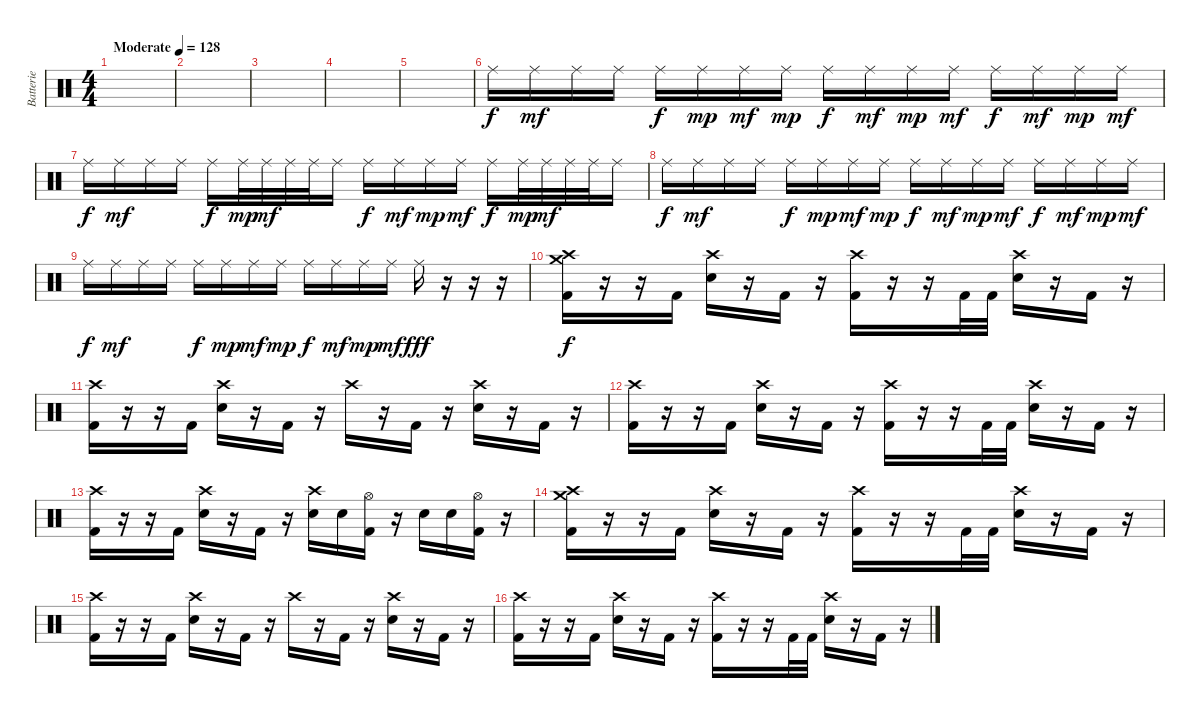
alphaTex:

\track ("Batterie" "Batterie") {instrument percussion}
\staff {score}
\articulation defaults
\ts (4 4)
\tempo (128 "Moderate")
\clef neutral
\ks c
|
|
|
|
|
"Ride (middle)".16 "Ride (middle)".16{dy mf} "Ride (middle)".16 "Ride (middle)".16 "Ride (middle)".16{dy f} "Ride (middle)".16{dy mp} "Ride (middle)".16{dy mf} "Ride (middle)".16{dy mp} "Ride (middle)".16{dy f} "Ride (middle)".16{dy mf} "Ride (middle)".16{dy mp} "Ride (middle)".16{dy mf} "Ride (middle)".16{dy f} "Ride (middle)".16{dy mf} "Ride (middle)".16{dy mp} "Ride (middle)".16{dy mf} |
"Ride (middle)".16{dy f} "Ride (middle)".16{dy mf} "Ride (middle)".16 "Ride (middle)".16 "Ride (middle)".16{dy f} "Ride (middle)".32{dy mp} "Ride (middle)".32{dy mf} "Ride (middle)".32 "Ride (middle)".32 "Ride (middle)".16 "Ride (middle)".16{dy f} "Ride (middle)".16{dy mf} "Ride (middle)".16{dy mp} "Ride (middle)".16{dy mf} "Ride (middle)".16{dy f} "Ride (middle)".32{dy mp} "Ride (middle)".32{dy mf} "Ride (middle)".32 "Ride (middle)".32 "Ride (middle)".16 |
"Ride (middle)".16{dy f} "Ride (middle)".16{dy mf} "Ride (middle)".16 "Ride (middle)".16 "Ride (middle)".16{dy f} "Ride (middle)".16{dy mp} "Ride (middle)".16{dy mf} "Ride (middle)".16{dy mp} "Ride (middle)".16{dy f} "Ride (middle)".16{dy mf} "Ride (middle)".16{dy mp} "Ride (middle)".16{dy mf} "Ride (middle)".16{dy f} "Ride (middle)".16{dy mf} "Ride (middle)".16{dy mp} "Ride (middle)".16{dy mf} |
"Ride (middle)".16{dy f} "Ride (middle)".16{dy mf} "Ride (middle)".16 "Ride (middle)".16 "Ride (middle)".16{dy f} "Ride (middle)".16{dy mp} "Ride (middle)".16{dy mf} "Ride (middle)".16{dy mp} "Ride (middle)".16{dy f} "Ride (middle)".16{dy mf} "Ride (middle)".16{dy mp} "Ride (middle)".16{dy mf} "Ride (middle)".16{dy fff} r.16 r.16 r.16 |
("Kick (hit) 2" "Crash medium (hit)" "Crash high (hit)").16{dy f} r.16 r.16 "Kick (hit) 2".16 ("Electric Snare (hit)" "Crash high (hit)").16 r.16 "Kick (hit) 2".16 r.16 ("Kick (hit) 2" "Crash high (hit)").16 r.16 r.16 "Kick (hit) 2".32 "Kick (hit) 2".32 ("Electric Snare (hit)" "Crash high (hit)").16 r.16 "Kick (hit) 2".16 r.16 |
("Kick (hit) 2" "Crash high (hit)").16 r.16 r.16 "Kick (hit) 2".16 ("Electric Snare (hit)" "Crash high (hit)").16 r.16 "Kick (hit) 2".16 r.16 "Crash high (hit)".16 r.16 "Kick (hit) 2".16 r.16 ("Electric Snare (hit)" "Crash high (hit)").16 r.16 "Kick (hit) 2".16 r.16 |
("Kick (hit) 2" "Crash high (hit)").16 r.16 r.16 "Kick (hit) 2".16 ("Electric Snare (hit)" "Crash high (hit)").16 r.16 "Kick (hit) 2".16 r.16 ("Kick (hit) 2" "Crash high (hit)").16 r.16 r.16 "Kick (hit) 2".32 "Kick (hit) 2".32 ("Electric Snare (hit)" "Crash high (hit)").16 r.16 "Kick (hit) 2".16 r.16 |
("Kick (hit) 2" "Crash high (hit)").16 r.16 r.16 "Kick (hit) 2".16 ("Electric Snare (hit)" "Crash high (hit)").16 r.16 "Kick (hit) 2".16 r.16 ("Electric Snare (hit)" "Crash high (hit)").16 "Electric Snare (hit)".16 ("Kick (hit) 2" "Hi-Hat (open)").16 r.16 "Electric Snare (hit)".16 "Electric Snare (hit)".16 ("Kick (hit) 2" "Hi-Hat (open)").16 r.16 |
("Kick (hit) 2" "Crash medium (hit)" "Crash high (hit)").16 r.16 r.16 "Kick (hit) 2".16 ("Electric Snare (hit)" "Crash high (hit)").16 r.16 "Kick (hit) 2".16 r.16 ("Kick (hit) 2" "Crash high (hit)").16 r.16 r.16 "Kick (hit) 2".32 "Kick (hit) 2".32 ("Electric Snare (hit)" "Crash high (hit)").16 r.16 "Kick (hit) 2".16 r.16 |
("Kick (hit) 2" "Crash high (hit)").16 r.16 r.16 "Kick (hit) 2".16 ("Electric Snare (hit)" "Crash high (hit)").16 r.16 "Kick (hit) 2".16 r.16 "Crash high (hit)".16 r.16 "Kick (hit) 2".16 r.16 ("Electric Snare (hit)" "Crash high (hit)").16 r.16 "Kick (hit) 2".16 r.16 |
("Kick (hit) 2" "Crash high (hit)").16 r.16 r.16 "Kick (hit) 2".16 ("Electric Snare (hit)" "Crash high (hit)").16 r.16 "Kick (hit) 2".16 r.16 ("Kick (hit) 2" "Crash high (hit)").16 r.16 r.16 "Kick (hit) 2".32 "Kick (hit) 2".32 ("Electric Snare (hit)" "Crash high (hit)").16 r.16 "Kick (hit) 2".16 r.16
